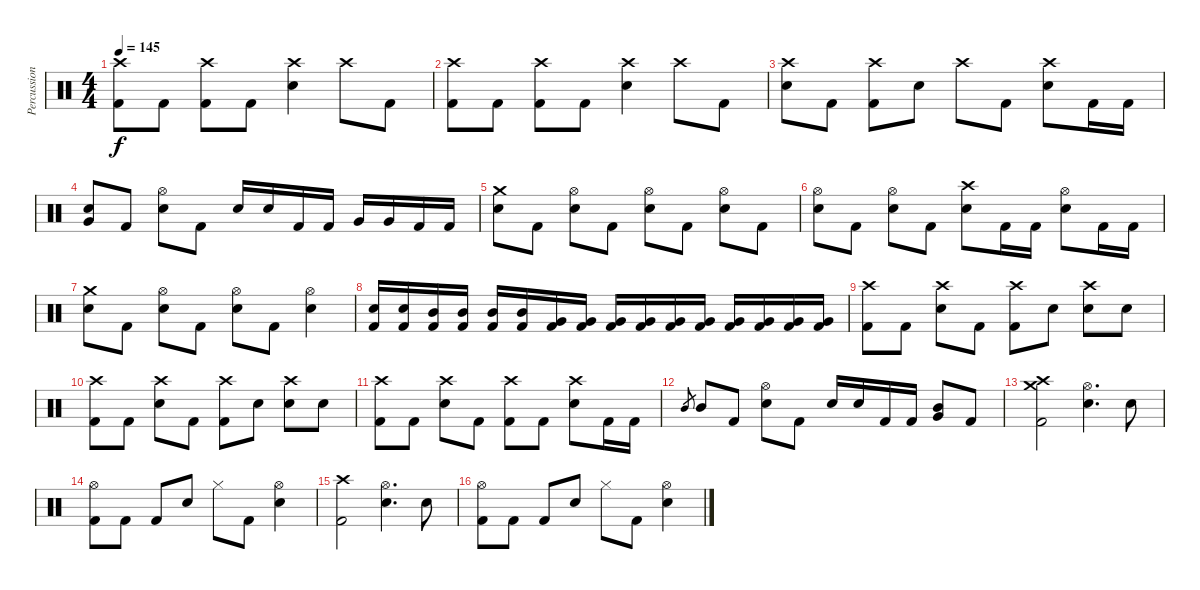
\track ("Percussion" "Percussion") {instrument percussion}
\staff {score}
\articulation defaults
\ts (4 4)
\tempo 145
\clef neutral
\ks c
("Crash high (hit)" "Kick (hit) 2").8{dy f} "Kick (hit) 2".8 ("Crash high (hit)" "Kick (hit) 2").8 "Kick (hit) 2".8 ("Crash high (hit)" "Snare (hit) 2").4 "Crash high (hit)".8 "Kick (hit) 2".8 |
("Crash high (hit)" "Kick (hit) 2").8 "Kick (hit) 2".8 ("Crash high (hit)" "Kick (hit) 2").8 "Kick (hit) 2".8 ("Crash high (hit)" "Snare (hit) 2").4 "Crash high (hit)".8 "Kick (hit) 2".8 |
("Crash high (hit)" "Snare (hit) 2").8 "Kick (hit) 2".8 ("Crash high (hit)" "Kick (hit) 2").8 "Snare (hit) 2".8 "Crash high (hit)".8 "Kick (hit) 2".8 ("Crash high (hit)" "Snare (hit) 2").8 "Kick (hit) 2".16 "Kick (hit) 2".16 |
("Snare (hit) 2" "Very Low Tom (hit)").8 "Kick (hit) 2".8 ("Hi-Hat (open)" "Snare (hit) 2").8 "Kick (hit) 2".8 "Snare (hit) 2".16 "Snare (hit) 2".16 "Kick (hit) 2".16 "Kick (hit) 2".16 "Very Low Tom (hit)".16 "Very Low Tom (hit)".16 "Kick (hit) 2".16 "Kick (hit) 2".16 |
("Crash medium (hit)" "Snare (hit) 2").8 "Kick (hit) 2".8 ("Hi-Hat (open)" "Snare (hit) 2").8 "Kick (hit) 2".8 ("Hi-Hat (open)" "Snare (hit) 2").8 "Kick (hit) 2".8 ("Hi-Hat (open)" "Snare (hit) 2").8 "Kick (hit) 2".8 |
("Hi-Hat (open)" "Snare (hit) 2").8 "Kick (hit) 2".8 ("Hi-Hat (open)" "Snare (hit) 2").8 "Kick (hit) 2".8 ("Crash high (hit)" "Snare (hit) 2").8 "Kick (hit) 2".16 "Kick (hit) 2".16 ("Hi-Hat (open)" "Snare (hit) 2").8 "Kick (hit) 2".16 "Kick (hit) 2".16 |
("Crash medium (hit)" "Snare (hit) 2").8 "Kick (hit) 2".8 ("Hi-Hat (open)" "Snare (hit) 2").8 "Kick (hit) 2".8 ("Hi-Hat (open)" "Snare (hit) 2").8 "Kick (hit) 2".8 ("Hi-Hat (open)" "Snare (hit) 2").4 |
("Snare (hit) 2" "Kick (hit) 2").16 ("Snare (hit) 2" "Kick (hit) 2").16 ("Mid Tom (hit)" "Kick (hit) 2").16 ("Mid Tom (hit)" "Kick (hit) 2").16 ("Mid Tom (hit)" "Kick (hit) 2").16 ("Mid Tom (hit)" "Kick (hit) 2").16 ("Very Low Tom (hit)" "Kick (hit) 2").16 ("Very Low Tom (hit)" "Kick (hit) 2").16 ("Very Low Tom (hit)" "Kick (hit) 2").16 ("Very Low Tom (hit)" "Kick (hit) 2").16 ("Very Low Tom (hit)" "Kick (hit) 2").16 ("Very Low Tom (hit)" "Kick (hit) 2").16 ("Very Low Tom (hit)" "Kick (hit) 2").16 ("Very Low Tom (hit)" "Kick (hit) 2").16 ("Very Low Tom (hit)" "Kick (hit) 2").16 ("Very Low Tom (hit)" "Kick (hit) 2").16 |
("Crash high (hit)" "Kick (hit) 2").8 "Kick (hit) 2".8 ("Crash high (hit)" "Snare (hit) 2").8 "Kick (hit) 2".8 ("Crash high (hit)" "Kick (hit) 2").8 "Snare (hit) 2".8 ("Crash high (hit)" "Snare (hit) 2").8 "Snare (hit) 2".8 |
("Crash high (hit)" "Kick (hit) 2").8 "Kick (hit) 2".8 ("Crash high (hit)" "Snare (hit) 2").8 "Kick (hit) 2".8 ("Crash high (hit)" "Kick (hit) 2").8 "Snare (hit) 2".8 ("Crash high (hit)" "Snare (hit) 2").8 "Snare (hit) 2".8 |
("Crash high (hit)" "Kick (hit) 2").8 "Kick (hit) 2".8 ("Crash high (hit)" "Snare (hit) 2").8 "Kick (hit) 2".8 ("Crash high (hit)" "Kick (hit) 2").8 "Kick (hit) 2".8 ("Crash high (hit)" "Snare (hit) 2").8 "Kick (hit) 2".16 "Kick (hit) 2".16 |
"Mid Tom (hit)".8{gr} "Mid Tom (hit)".8 "Kick (hit) 2".8 ("Hi-Hat (open)" "Snare (hit) 2").8 "Kick (hit) 2".8 "Snare (hit) 2".16 "Snare (hit) 2".16 "Kick (hit) 2".16 "Kick (hit) 2".16 ("Mid Tom (hit)" "Very Low Tom (hit)").8 "Kick (hit) 2".8 |
("Crash high (hit)" "Crash medium (hit)" "Kick (hit) 2").2 ("Hi-Hat (open)" "Snare (hit) 2").4{d} "Snare (hit) 2".8 |
("Hi-Hat (open)" "Kick (hit) 2").8 "Kick (hit) 2".8 "Kick (hit) 2".8 "Snare (hit) 2".8 "Hi-Hat (closed)".8 "Kick (hit) 2".8 ("Hi-Hat (open)" "Snare (hit) 2").4 |
("Crash high (hit)" "Kick (hit) 2").2 ("Hi-Hat (open)" "Snare (hit) 2").4{d} "Snare (hit) 2".8 |
("Hi-Hat (open)" "Kick (hit) 2").8 "Kick (hit) 2".8 "Kick (hit) 2".8 "Snare (hit) 2".8 "Hi-Hat (closed)".8 "Kick (hit) 2".8 ("Hi-Hat (open)" "Snare (hit) 2").4
